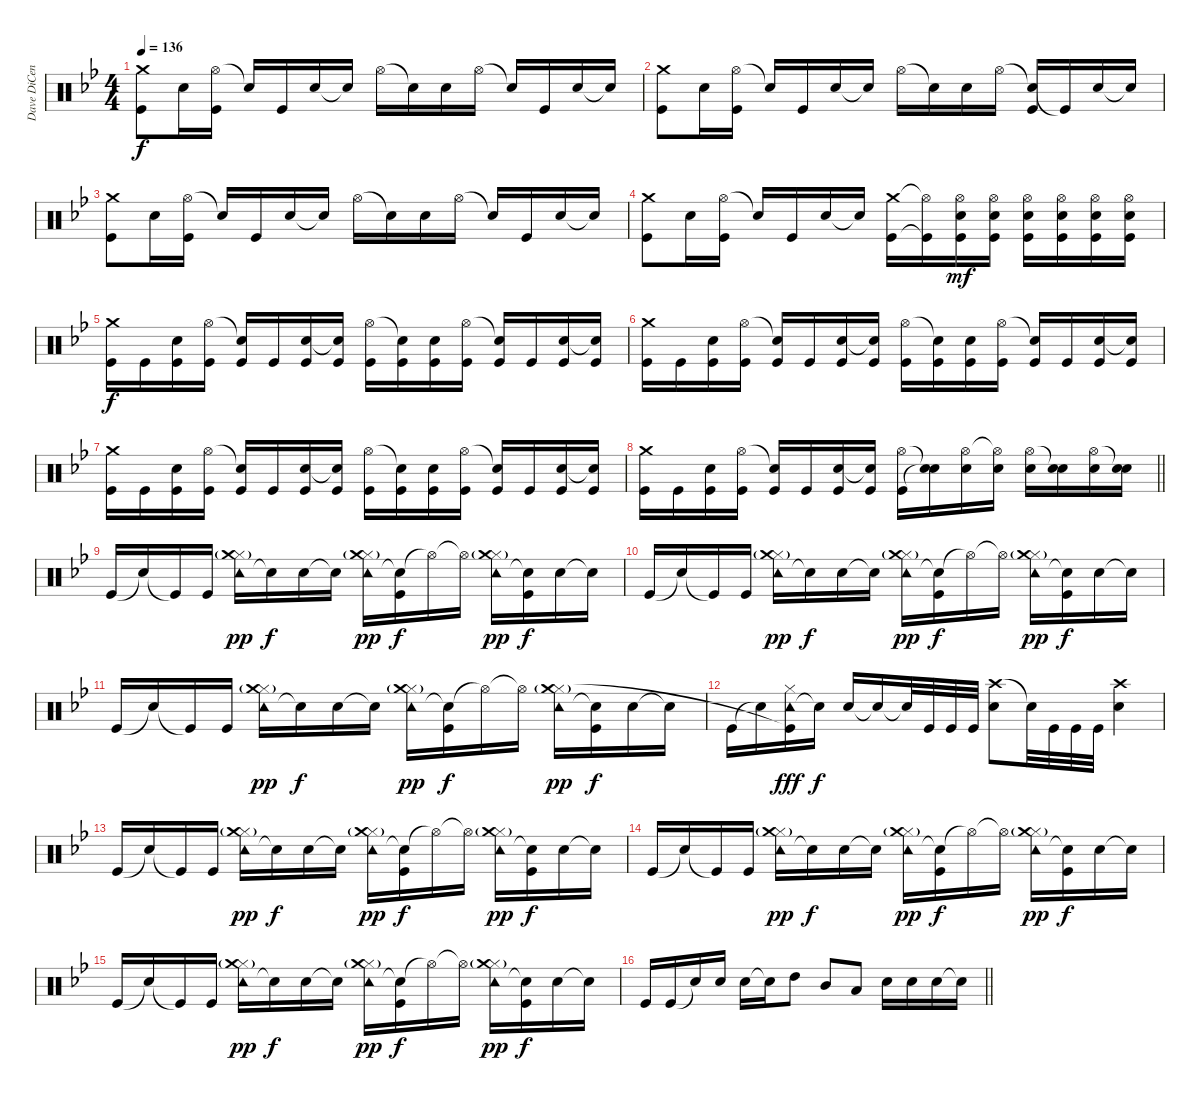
\track ("Dave DiCenso" "Dave DiCen") {instrument percussion}
\staff {score}
\articulation defaults
\ts (4 4)
\tempo 136
\clef neutral
\ks bb
("Crash medium (hit)" "Kick (hit)").8{dy f} "Electric Snare (hit)".16 ("Hi-Hat (open)" "Kick (hit)").16 "Snare (hit)"{t}.16 "Kick (hit)".16 "Electric Snare (hit)".16 "Snare (hit)"{t}.16 "Hi-Hat (open)".16 "Snare (hit)"{t}.16 "Electric Snare (hit)".16 "Hi-Hat (open)".16 "Snare (hit)"{t}.16 "Kick (hit)".16 "Electric Snare (hit)".16 "Snare (hit)"{t}.16 |
("Crash medium (hit)" "Kick (hit)").8 "Electric Snare (hit)".16 ("Hi-Hat (open)" "Kick (hit)").16 "Snare (hit)"{t}.16 "Kick (hit)".16 "Electric Snare (hit)".16 "Snare (hit)"{t}.16 "Hi-Hat (open)".16 "Snare (hit)"{t}.16 "Electric Snare (hit)".16 "Hi-Hat (open)".16 ("Snare (hit)"{t} "Kick (hit)").16 "Kick (hit)"{t}.16 "Electric Snare (hit)".16 "Snare (hit)"{t}.16 |
("Crash medium (hit)" "Kick (hit)").8 "Electric Snare (hit)".16 ("Hi-Hat (open)" "Kick (hit)").16 "Snare (hit)"{t}.16 "Kick (hit)".16 "Electric Snare (hit)".16 "Snare (hit)"{t}.16 "Hi-Hat (open)".16 "Snare (hit)"{t}.16 "Electric Snare (hit)".16 "Hi-Hat (open)".16 "Snare (hit)"{t}.16 "Kick (hit)".16 "Electric Snare (hit)".16 "Snare (hit)"{t}.16 |
("Crash medium (hit)" "Kick (hit)").8 "Electric Snare (hit)".16 ("Hi-Hat (open)" "Kick (hit)").16 "Snare (hit)"{t}.16 "Kick (hit)".16 "Electric Snare (hit)".16 "Snare (hit)"{t}.16 ("Crash medium (hit)" "Kick (hit)").16 ("Hi-Hat (open)"{t} "Kick (hit)"{t}).16 ("Hi-Hat (open)" "Electric Snare (hit)" "Kick (hit)").16{dy mf} ("Hi-Hat (open)" "Electric Snare (hit)" "Kick (hit)").16 ("Hi-Hat (open)" "Electric Snare (hit)" "Kick (hit)").16 ("Hi-Hat (open)" "Electric Snare (hit)" "Kick (hit)").16 ("Hi-Hat (open)" "Electric Snare (hit)" "Kick (hit)").16 ("Hi-Hat (open)" "Electric Snare (hit)" "Kick (hit)").16 |
("Crash medium (hit)" "Kick (hit)").16{dy f} "Kick (hit)".16 ("Electric Snare (hit)" "Kick (hit)").16 ("Hi-Hat (open)" "Kick (hit)").16 ("Snare (hit)"{t} "Kick (hit)").16 "Kick (hit)".16 ("Electric Snare (hit)" "Kick (hit)").16 ("Snare (hit)"{t} "Kick (hit)").16 ("Hi-Hat (open)" "Kick (hit)").16 ("Snare (hit)"{t} "Kick (hit)").16 ("Electric Snare (hit)" "Kick (hit)").16 ("Hi-Hat (open)" "Kick (hit)").16 ("Snare (hit)"{t} "Kick (hit)").16 "Kick (hit)".16 ("Electric Snare (hit)" "Kick (hit)").16 ("Snare (hit)"{t} "Kick (hit)").16 |
("Crash medium (hit)" "Kick (hit)").16 "Kick (hit)".16 ("Electric Snare (hit)" "Kick (hit)").16 ("Hi-Hat (open)" "Kick (hit)").16 ("Snare (hit)"{t} "Kick (hit)").16 "Kick (hit)".16 ("Electric Snare (hit)" "Kick (hit)").16 ("Snare (hit)"{t} "Kick (hit)").16 ("Hi-Hat (open)" "Kick (hit)").16 ("Snare (hit)"{t} "Kick (hit)").16 ("Electric Snare (hit)" "Kick (hit)").16 ("Hi-Hat (open)" "Kick (hit)").16 ("Snare (hit)"{t} "Kick (hit)").16 "Kick (hit)".16 ("Electric Snare (hit)" "Kick (hit)").16 ("Snare (hit)"{t} "Kick (hit)").16 |
("Crash medium (hit)" "Kick (hit)").16 "Kick (hit)".16 ("Electric Snare (hit)" "Kick (hit)").16 ("Hi-Hat (open)" "Kick (hit)").16 ("Snare (hit)"{t} "Kick (hit)").16 "Kick (hit)".16 ("Electric Snare (hit)" "Kick (hit)").16 ("Snare (hit)"{t} "Kick (hit)").16 ("Hi-Hat (open)" "Kick (hit)").16 ("Snare (hit)"{t} "Kick (hit)").16 ("Electric Snare (hit)" "Kick (hit)").16 ("Hi-Hat (open)" "Kick (hit)").16 ("Snare (hit)"{t} "Kick (hit)").16 "Kick (hit)".16 ("Electric Snare (hit)" "Kick (hit)").16 ("Snare (hit)"{t} "Kick (hit)").16 |
\barLineRight lightlight
("Crash medium (hit)" "Kick (hit)").16 "Kick (hit)".16 ("Electric Snare (hit)" "Kick (hit)").16 ("Hi-Hat (open)" "Kick (hit)").16 ("Snare (hit)"{t} "Kick (hit)").16 "Kick (hit)".16 ("Electric Snare (hit)" "Kick (hit)").16 ("Snare (hit)"{t} "Kick (hit)").16 ("Hi-Hat (open)" "Kick (hit)").16 ("Snare (hit)"{t} "Snare (hit)"{t}).16 ("Hi-Hat (open)" "Electric Snare (hit)").16 ("Hi-Hat (open)"{t} "Electric Snare (hit)").16 ("Hi-Hat (open)" "Electric Snare (hit)").16 ("Snare (hit)"{t} "Electric Snare (hit)").16 ("Hi-Hat (open)" "Electric Snare (hit)").16 ("Snare (hit)"{t} "Electric Snare (hit)").16 |
"Kick (hit)".16 "Snare (hit)"{t}.16 "Kick (hit)"{t}.16 "Kick (hit)".16 ("Tambourine (hit)" "Hi-Hat (closed)" "Crash medium (hit)"{g}).16{dy pp} "Snare (hit)"{t}.16{dy f} "Electric Snare (hit)".16 "Snare (hit)"{t}.16 ("Tambourine (hit)" "Hi-Hat (closed)" "Crash medium (hit)"{g}).16{dy pp} ("Snare (hit)"{t} "Kick (hit)").16{dy f} "Hi-Hat (open)"{t}.16 "Hi-Hat (open)"{t}.16 ("Tambourine (hit)" "Hi-Hat (closed)" "Crash medium (hit)"{g}).16{dy pp} ("Snare (hit)"{t} "Kick (hit)").16{dy f} "Electric Snare (hit)".16 "Snare (hit)"{t}.16 |
"Kick (hit)".16 "Snare (hit)"{t}.16 "Kick (hit)"{t}.16 "Kick (hit)".16 ("Tambourine (hit)" "Hi-Hat (closed)" "Crash medium (hit)"{g}).16{dy pp} "Snare (hit)"{t}.16{dy f} "Electric Snare (hit)".16 "Snare (hit)"{t}.16 ("Tambourine (hit)" "Hi-Hat (closed)" "Crash medium (hit)"{g}).16{dy pp} ("Snare (hit)"{t} "Kick (hit)").16{dy f} "Hi-Hat (open)"{t}.16 "Hi-Hat (open)"{t}.16 ("Tambourine (hit)" "Hi-Hat (closed)" "Crash medium (hit)"{g}).16{dy pp} ("Snare (hit)"{t} "Kick (hit)").16{dy f} "Electric Snare (hit)".16 "Snare (hit)"{t}.16 |
"Kick (hit)".16 "Snare (hit)"{t}.16 "Kick (hit)"{t}.16 "Kick (hit)".16 ("Tambourine (hit)" "Hi-Hat (closed)" "Crash medium (hit)"{g}).16{dy pp} "Snare (hit)"{t}.16{dy f} "Electric Snare (hit)".16 "Snare (hit)"{t}.16 ("Tambourine (hit)" "Hi-Hat (closed)" "Crash medium (hit)"{g}).16{dy pp} ("Snare (hit)"{t} "Kick (hit)").16{dy f} "Hi-Hat (open)"{t}.16 "Hi-Hat (open)"{t}.16 ("Tambourine (hit)" "Hi-Hat (closed)" "Crash medium (hit)"{g}).16{dy pp} ("Snare (hit)"{t} "Kick (hit)").16{dy f} "Electric Snare (hit)".16 "Snare (hit)"{t}.16 |
"Kick (hit)".16 "Snare (hit)"{t}.16 ("Tambourine (hit)" "Hi-Hat (closed)" "Kick (hit)"{t}).16{dy fff} "Snare (hit)"{t}.16{dy f} "Electric Snare (hit)".16 "Snare (hit)"{t}.16 "Snare (hit)"{t}.32 "Kick (hit)".32 "Kick (hit)".32 "Kick (hit)".32 ("Crash high (hit)" "Electric Snare (hit)").8 "Snare (hit)"{t}.32 "Kick (hit)".32 "Kick (hit)".32 "Kick (hit)".32 ("Crash high (hit)" "Electric Snare (hit)").4 |
"Kick (hit)".16 "Snare (hit)"{t}.16 "Kick (hit)"{t}.16 "Kick (hit)".16 ("Tambourine (hit)" "Hi-Hat (closed)" "Crash medium (hit)"{g}).16{dy pp} "Snare (hit)"{t}.16{dy f} "Electric Snare (hit)".16 "Snare (hit)"{t}.16 ("Tambourine (hit)" "Hi-Hat (closed)" "Crash medium (hit)"{g}).16{dy pp} ("Snare (hit)"{t} "Kick (hit)").16{dy f} "Hi-Hat (open)"{t}.16 "Hi-Hat (open)"{t}.16 ("Tambourine (hit)" "Hi-Hat (closed)" "Crash medium (hit)"{g}).16{dy pp} ("Snare (hit)"{t} "Kick (hit)").16{dy f} "Electric Snare (hit)".16 "Snare (hit)"{t}.16 |
"Kick (hit)".16 "Snare (hit)"{t}.16 "Kick (hit)"{t}.16 "Kick (hit)".16 ("Tambourine (hit)" "Hi-Hat (closed)" "Crash medium (hit)"{g}).16{dy pp} "Snare (hit)"{t}.16{dy f} "Electric Snare (hit)".16 "Snare (hit)"{t}.16 ("Tambourine (hit)" "Hi-Hat (closed)" "Crash medium (hit)"{g}).16{dy pp} ("Snare (hit)"{t} "Kick (hit)").16{dy f} "Hi-Hat (open)"{t}.16 "Hi-Hat (open)"{t}.16 ("Tambourine (hit)" "Hi-Hat (closed)" "Crash medium (hit)"{g}).16{dy pp} ("Snare (hit)"{t} "Kick (hit)").16{dy f} "Electric Snare (hit)".16 "Snare (hit)"{t}.16 |
"Kick (hit)".16 "Snare (hit)"{t}.16 "Kick (hit)"{t}.16 "Kick (hit)".16 ("Tambourine (hit)" "Hi-Hat (closed)" "Crash medium (hit)"{g}).16{dy pp} "Snare (hit)"{t}.16{dy f} "Electric Snare (hit)".16 "Snare (hit)"{t}.16 ("Tambourine (hit)" "Hi-Hat (closed)" "Crash medium (hit)"{g}).16{dy pp} ("Snare (hit)"{t} "Kick (hit)").16{dy f} "Hi-Hat (open)"{t}.16 "Hi-Hat (open)"{t}.16 ("Tambourine (hit)" "Hi-Hat (closed)" "Crash medium (hit)"{g}).16{dy pp} ("Snare (hit)"{t} "Kick (hit)").16{dy f} "Electric Snare (hit)".16 "Snare (hit)"{t}.16 |
\barLineRight lightlight "Kick (hit)".16 "Kick (hit)".16 "Snare (hit)"{t}.16 "Electric Snare (hit)".16 "Electric Snare (hit)".16 "Snare (hit)"{t}.16 "High Tom (hit)".8 "Mid Tom (hit)".8 "Low Tom (hit)".8 "Electric Snare (hit)".16 "Electric Snare (hit)".16 "Electric Snare (hit)".16 "Snare (hit)"{t}.16
